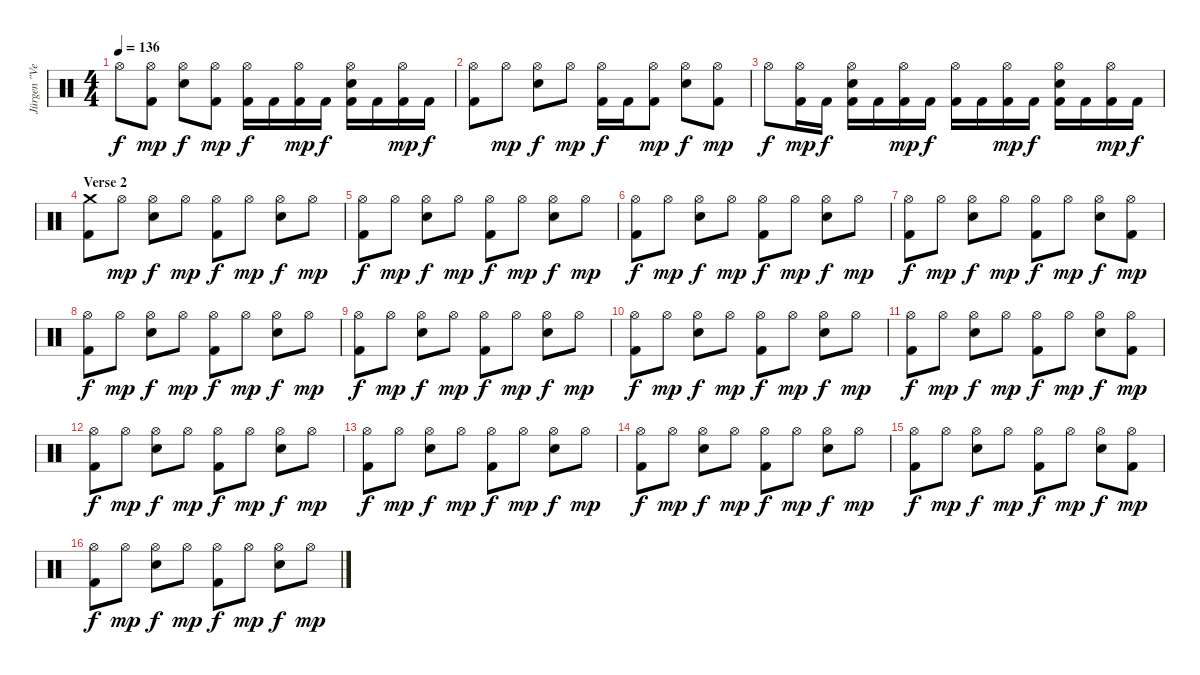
\track ("Jürgen \"Ventor\" Reil" "Jürgen \"Ve") {instrument percussion}
\staff {score}
\articulation defaults
\ts (4 4)
\tempo 136
\clef neutral
\ks c "Hi-Hat (open)".8{dy f}
("Kick (hit) 2" "Hi-Hat (open)").8{dy mp} ("Hi-Hat (open)" "Snare (hit) 2").8{dy f} ("Kick (hit) 2" "Hi-Hat (open)").8{dy mp} ("Kick (hit) 2" "Hi-Hat (open)").16{dy f} "Kick (hit) 2".16 ("Kick (hit) 2" "Hi-Hat (open)").16{dy mp} "Kick (hit) 2".16{dy f} ("Kick (hit) 2" "Hi-Hat (open)" "Snare (hit) 2").16 "Kick (hit) 2".16 ("Kick (hit) 2" "Hi-Hat (open)").16{dy mp} "Kick (hit) 2".16{dy f} |
("Kick (hit) 2" "Hi-Hat (open)").8 "Hi-Hat (open)".8{dy mp} ("Hi-Hat (open)" "Snare (hit) 2").8{dy f} "Hi-Hat (open)".8{dy mp} ("Kick (hit) 2" "Hi-Hat (open)").16{dy f} "Kick (hit) 2".16 ("Kick (hit) 2" "Hi-Hat (open)").8{dy mp} ("Hi-Hat (open)" "Snare (hit) 2").8{dy f} ("Kick (hit) 2" "Hi-Hat (open)").8{dy mp} |
"Hi-Hat (open)".8{dy f} ("Kick (hit) 2" "Hi-Hat (open)").16{dy mp} "Kick (hit) 2".16{dy f} ("Kick (hit) 2" "Hi-Hat (open)" "Snare (hit) 2").16 "Kick (hit) 2".16 ("Kick (hit) 2" "Hi-Hat (open)").16{dy mp} "Kick (hit) 2".16{dy f} ("Kick (hit) 2" "Hi-Hat (open)").16 "Kick (hit) 2".16 ("Kick (hit) 2" "Hi-Hat (open)").16{dy mp} "Kick (hit) 2".16{dy f} ("Kick (hit) 2" "Hi-Hat (open)" "Snare (hit) 2").16 "Kick (hit) 2".16 ("Kick (hit) 2" "Hi-Hat (open)").16{dy mp} "Kick (hit) 2".16{dy f} |
\section ("" "Verse 2")
("Kick (hit) 2" "Crash medium (hit)").8 "Hi-Hat (open)".8{dy mp} ("Hi-Hat (open)" "Snare (hit) 2").8{dy f} "Hi-Hat (open)".8{dy mp} ("Kick (hit) 2" "Hi-Hat (open)").8{dy f} "Hi-Hat (open)".8{dy mp} ("Hi-Hat (open)" "Snare (hit) 2").8{dy f} "Hi-Hat (open)".8{dy mp} |
("Kick (hit) 2" "Hi-Hat (open)").8{dy f} "Hi-Hat (open)".8{dy mp} ("Hi-Hat (open)" "Snare (hit) 2").8{dy f} "Hi-Hat (open)".8{dy mp} ("Kick (hit) 2" "Hi-Hat (open)").8{dy f} "Hi-Hat (open)".8{dy mp} ("Hi-Hat (open)" "Snare (hit) 2").8{dy f} "Hi-Hat (open)".8{dy mp} |
("Kick (hit) 2" "Hi-Hat (open)").8{dy f} "Hi-Hat (open)".8{dy mp} ("Hi-Hat (open)" "Snare (hit) 2").8{dy f} "Hi-Hat (open)".8{dy mp} ("Kick (hit) 2" "Hi-Hat (open)").8{dy f} "Hi-Hat (open)".8{dy mp} ("Hi-Hat (open)" "Snare (hit) 2").8{dy f} "Hi-Hat (open)".8{dy mp} |
("Kick (hit) 2" "Hi-Hat (open)").8{dy f} "Hi-Hat (open)".8{dy mp} ("Hi-Hat (open)" "Snare (hit) 2").8{dy f} "Hi-Hat (open)".8{dy mp} ("Kick (hit) 2" "Hi-Hat (open)").8{dy f} "Hi-Hat (open)".8{dy mp} ("Hi-Hat (open)" "Snare (hit) 2").8{dy f} ("Kick (hit) 2" "Hi-Hat (open)").8{dy mp} |
("Kick (hit) 2" "Hi-Hat (open)").8{dy f} "Hi-Hat (open)".8{dy mp} ("Hi-Hat (open)" "Snare (hit) 2").8{dy f} "Hi-Hat (open)".8{dy mp} ("Kick (hit) 2" "Hi-Hat (open)").8{dy f} "Hi-Hat (open)".8{dy mp} ("Hi-Hat (open)" "Snare (hit) 2").8{dy f} "Hi-Hat (open)".8{dy mp} |
("Kick (hit) 2" "Hi-Hat (open)").8{dy f} "Hi-Hat (open)".8{dy mp} ("Hi-Hat (open)" "Snare (hit) 2").8{dy f} "Hi-Hat (open)".8{dy mp} ("Kick (hit) 2" "Hi-Hat (open)").8{dy f} "Hi-Hat (open)".8{dy mp} ("Hi-Hat (open)" "Snare (hit) 2").8{dy f} "Hi-Hat (open)".8{dy mp} |
("Kick (hit) 2" "Hi-Hat (open)").8{dy f} "Hi-Hat (open)".8{dy mp} ("Hi-Hat (open)" "Snare (hit) 2").8{dy f} "Hi-Hat (open)".8{dy mp} ("Kick (hit) 2" "Hi-Hat (open)").8{dy f} "Hi-Hat (open)".8{dy mp} ("Hi-Hat (open)" "Snare (hit) 2").8{dy f} "Hi-Hat (open)".8{dy mp} |
("Kick (hit) 2" "Hi-Hat (open)").8{dy f} "Hi-Hat (open)".8{dy mp} ("Hi-Hat (open)" "Snare (hit) 2").8{dy f} "Hi-Hat (open)".8{dy mp} ("Kick (hit) 2" "Hi-Hat (open)").8{dy f} "Hi-Hat (open)".8{dy mp} ("Hi-Hat (open)" "Snare (hit) 2").8{dy f} ("Kick (hit) 2" "Hi-Hat (open)").8{dy mp} |
("Kick (hit) 2" "Hi-Hat (open)").8{dy f} "Hi-Hat (open)".8{dy mp} ("Hi-Hat (open)" "Snare (hit) 2").8{dy f} "Hi-Hat (open)".8{dy mp} ("Kick (hit) 2" "Hi-Hat (open)").8{dy f} "Hi-Hat (open)".8{dy mp} ("Hi-Hat (open)" "Snare (hit) 2").8{dy f} "Hi-Hat (open)".8{dy mp} |
("Kick (hit) 2" "Hi-Hat (open)").8{dy f} "Hi-Hat (open)".8{dy mp} ("Hi-Hat (open)" "Snare (hit) 2").8{dy f} "Hi-Hat (open)".8{dy mp} ("Kick (hit) 2" "Hi-Hat (open)").8{dy f} "Hi-Hat (open)".8{dy mp} ("Hi-Hat (open)" "Snare (hit) 2").8{dy f} "Hi-Hat (open)".8{dy mp} |
("Kick (hit) 2" "Hi-Hat (open)").8{dy f} "Hi-Hat (open)".8{dy mp} ("Hi-Hat (open)" "Snare (hit) 2").8{dy f} "Hi-Hat (open)".8{dy mp} ("Kick (hit) 2" "Hi-Hat (open)").8{dy f} "Hi-Hat (open)".8{dy mp} ("Hi-Hat (open)" "Snare (hit) 2").8{dy f} "Hi-Hat (open)".8{dy mp} |
("Kick (hit) 2" "Hi-Hat (open)").8{dy f} "Hi-Hat (open)".8{dy mp} ("Hi-Hat (open)" "Snare (hit) 2").8{dy f} "Hi-Hat (open)".8{dy mp} ("Kick (hit) 2" "Hi-Hat (open)").8{dy f} "Hi-Hat (open)".8{dy mp} ("Hi-Hat (open)" "Snare (hit) 2").8{dy f} ("Kick (hit) 2" "Hi-Hat (open)").8{dy mp} |
("Kick (hit) 2" "Hi-Hat (open)").8{dy f} "Hi-Hat (open)".8{dy mp} ("Hi-Hat (open)" "Snare (hit) 2").8{dy f} "Hi-Hat (open)".8{dy mp} ("Kick (hit) 2" "Hi-Hat (open)").8{dy f} "Hi-Hat (open)".8{dy mp} ("Hi-Hat (open)" "Snare (hit) 2").8{dy f} "Hi-Hat (open)".8{dy mp}
